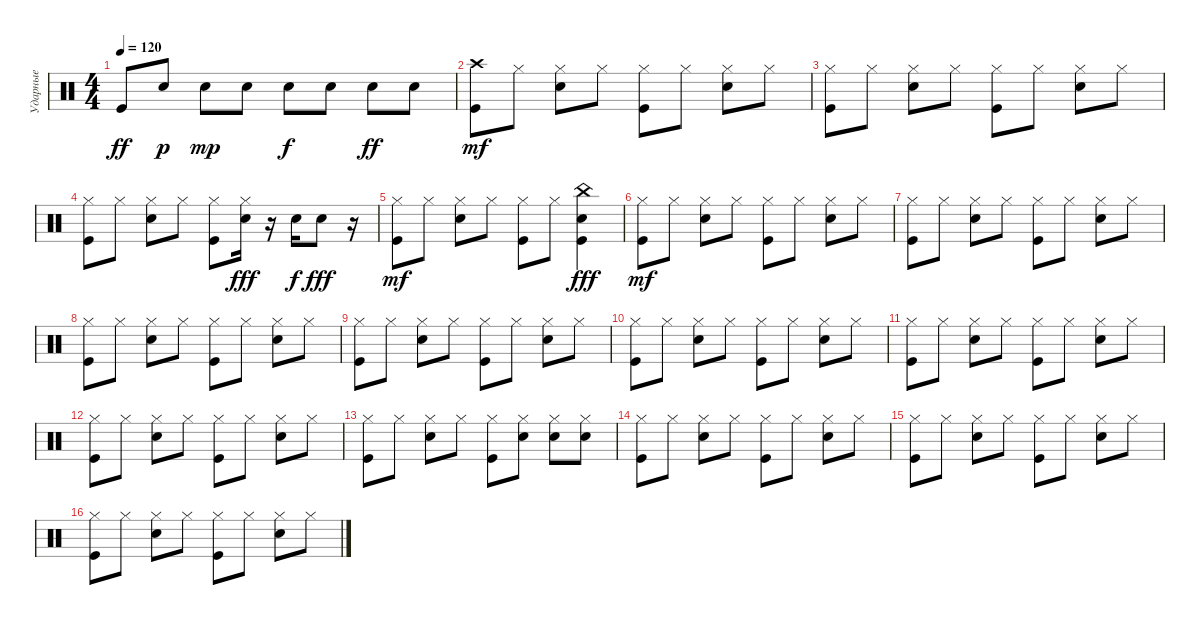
\track ("Ударные" "Ударные") {instrument percussion}
\staff {score}
\articulation defaults
\ts (4 4)
\tempo 120
\clef neutral
\ks c "Kick (hit)".8{dy ff} "Snare (hit) 2".8{dy p} "Snare (hit) 2".8{dy mp} "Snare (hit) 2".8 "Snare (hit) 2".8{dy f} "Snare (hit) 2".8 "Snare (hit) 2".8{dy ff} "Snare (hit) 2".8
|
("Kick (hit)" "Crash high (hit)").8{dy mf} "Hi-Hat (closed)".8 ("Snare (hit) 2" "Hi-Hat (closed)").8 "Hi-Hat (closed)".8 ("Kick (hit)" "Hi-Hat (closed)").8 "Hi-Hat (closed)".8 ("Snare (hit) 2" "Hi-Hat (closed)").8 "Hi-Hat (closed)".8 |
("Kick (hit)" "Hi-Hat (closed)").8 "Hi-Hat (closed)".8 ("Snare (hit) 2" "Hi-Hat (closed)").8 "Hi-Hat (closed)".8 ("Kick (hit)" "Hi-Hat (closed)").8 "Hi-Hat (closed)".8 ("Snare (hit) 2" "Hi-Hat (closed)").8 "Hi-Hat (closed)".8 |
("Kick (hit)" "Hi-Hat (closed)").8 "Hi-Hat (closed)".8 ("Snare (hit) 2" "Hi-Hat (closed)").8 "Hi-Hat (closed)".8 ("Kick (hit)" "Hi-Hat (closed)").8 ("Hand Clap (hit)" "Hi-Hat (closed)").16{dy fff balance 14} r.16 "Hand Clap (hit)".16{dy f} "Hand Clap (hit)".8{dy fff} r.16 |
("Kick (hit)" "Hi-Hat (closed)").8{dy mf balance 8} "Hi-Hat (closed)".8 ("Snare (hit) 2" "Hi-Hat (closed)").8 "Hi-Hat (closed)".8 ("Kick (hit)" "Hi-Hat (closed)").8 "Hi-Hat (closed)".8 ("Kick (hit)" "Hand Clap (hit)" "China (hit)").4{dy fff} |
("Kick (hit)" "Hi-Hat (closed)").8{dy mf} "Hi-Hat (closed)".8 ("Snare (hit) 2" "Hi-Hat (closed)").8 "Hi-Hat (closed)".8 ("Kick (hit)" "Hi-Hat (closed)").8 "Hi-Hat (closed)".8 ("Snare (hit) 2" "Hi-Hat (closed)").8 "Hi-Hat (closed)".8 |
("Kick (hit)" "Hi-Hat (closed)").8 "Hi-Hat (closed)".8 ("Snare (hit) 2" "Hi-Hat (closed)").8 "Hi-Hat (closed)".8 ("Kick (hit)" "Hi-Hat (closed)").8 "Hi-Hat (closed)".8 ("Snare (hit) 2" "Hi-Hat (closed)").8 "Hi-Hat (closed)".8 |
("Kick (hit)" "Hi-Hat (closed)").8 "Hi-Hat (closed)".8 ("Snare (hit) 2" "Hi-Hat (closed)").8 "Hi-Hat (closed)".8 ("Kick (hit)" "Hi-Hat (closed)").8 "Hi-Hat (closed)".8 ("Snare (hit) 2" "Hi-Hat (closed)").8 "Hi-Hat (closed)".8 |
("Kick (hit)" "Hi-Hat (closed)").8 "Hi-Hat (closed)".8 ("Snare (hit) 2" "Hi-Hat (closed)").8 "Hi-Hat (closed)".8 ("Kick (hit)" "Hi-Hat (closed)").8 "Hi-Hat (closed)".8 ("Snare (hit) 2" "Hi-Hat (closed)").8 "Hi-Hat (closed)".8 |
("Kick (hit)" "Hi-Hat (closed)").8 "Hi-Hat (closed)".8 ("Snare (hit) 2" "Hi-Hat (closed)").8 "Hi-Hat (closed)".8 ("Kick (hit)" "Hi-Hat (closed)").8 "Hi-Hat (closed)".8 ("Snare (hit) 2" "Hi-Hat (closed)").8 "Hi-Hat (closed)".8 |
("Kick (hit)" "Hi-Hat (closed)").8 "Hi-Hat (closed)".8 ("Snare (hit) 2" "Hi-Hat (closed)").8 "Hi-Hat (closed)".8 ("Kick (hit)" "Hi-Hat (closed)").8 "Hi-Hat (closed)".8 ("Snare (hit) 2" "Hi-Hat (closed)").8 "Hi-Hat (closed)".8 |
("Kick (hit)" "Hi-Hat (closed)").8 "Hi-Hat (closed)".8 ("Snare (hit) 2" "Hi-Hat (closed)").8 "Hi-Hat (closed)".8 ("Kick (hit)" "Hi-Hat (closed)").8 "Hi-Hat (closed)".8 ("Snare (hit) 2" "Hi-Hat (closed)").8 "Hi-Hat (closed)".8 |
("Kick (hit)" "Hi-Hat (closed)").8 "Hi-Hat (closed)".8 ("Snare (hit) 2" "Hi-Hat (closed)").8 "Hi-Hat (closed)".8 ("Kick (hit)" "Hi-Hat (closed)").8 ("Hi-Hat (closed)" "Snare (hit) 2").8 ("Snare (hit) 2" "Hi-Hat (closed)").8 ("Hi-Hat (closed)" "Snare (hit) 2").8 |
("Kick (hit)" "Hi-Hat (closed)").8 "Hi-Hat (closed)".8 ("Snare (hit) 2" "Hi-Hat (closed)").8 "Hi-Hat (closed)".8 ("Kick (hit)" "Hi-Hat (closed)").8 "Hi-Hat (closed)".8 ("Snare (hit) 2" "Hi-Hat (closed)").8 "Hi-Hat (closed)".8 |
("Kick (hit)" "Hi-Hat (closed)").8 "Hi-Hat (closed)".8 ("Snare (hit) 2" "Hi-Hat (closed)").8 "Hi-Hat (closed)".8 ("Kick (hit)" "Hi-Hat (closed)").8 "Hi-Hat (closed)".8 ("Snare (hit) 2" "Hi-Hat (closed)").8 "Hi-Hat (closed)".8 |
("Kick (hit)" "Hi-Hat (closed)").8 "Hi-Hat (closed)".8 ("Snare (hit) 2" "Hi-Hat (closed)").8 "Hi-Hat (closed)".8 ("Kick (hit)" "Hi-Hat (closed)").8 "Hi-Hat (closed)".8 ("Snare (hit) 2" "Hi-Hat (closed)").8 "Hi-Hat (closed)".8
